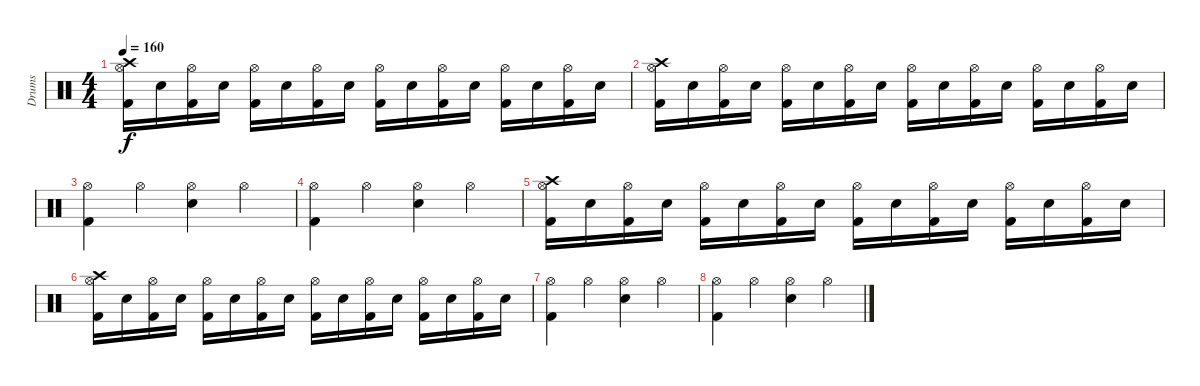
\track ("Drums" "Drums") {instrument percussion}
\staff {score}
\articulation defaults
\ts (4 4)
\tempo 160
\clef neutral
\ks c
("Kick (hit) 2" "Hi-Hat (open)" "Crash high (hit)").16{dy f} "Snare (hit) 2".16 ("Kick (hit) 2" "Hi-Hat (open)").16 "Snare (hit) 2".16 ("Kick (hit) 2" "Hi-Hat (open)").16 "Snare (hit) 2".16 ("Kick (hit) 2" "Hi-Hat (open)").16 "Snare (hit) 2".16 ("Kick (hit) 2" "Hi-Hat (open)").16 "Snare (hit) 2".16 ("Kick (hit) 2" "Hi-Hat (open)").16 "Snare (hit) 2".16 ("Kick (hit) 2" "Hi-Hat (open)").16 "Snare (hit) 2".16 ("Kick (hit) 2" "Hi-Hat (open)").16 "Snare (hit) 2".16 |
("Kick (hit) 2" "Hi-Hat (open)" "Crash high (hit)").16 "Snare (hit) 2".16 ("Kick (hit) 2" "Hi-Hat (open)").16 "Snare (hit) 2".16 ("Kick (hit) 2" "Hi-Hat (open)").16 "Snare (hit) 2".16 ("Kick (hit) 2" "Hi-Hat (open)").16 "Snare (hit) 2".16 ("Kick (hit) 2" "Hi-Hat (open)").16 "Snare (hit) 2".16 ("Kick (hit) 2" "Hi-Hat (open)").16 "Snare (hit) 2".16 ("Kick (hit) 2" "Hi-Hat (open)").16 "Snare (hit) 2".16 ("Kick (hit) 2" "Hi-Hat (open)").16 "Snare (hit) 2".16 |
("Kick (hit) 2" "Hi-Hat (open)").4 "Hi-Hat (open)".4 ("Snare (hit) 2" "Hi-Hat (open)").4 "Hi-Hat (open)".4 |
("Kick (hit) 2" "Hi-Hat (open)").4 "Hi-Hat (open)".4 ("Snare (hit) 2" "Hi-Hat (open)").4 "Hi-Hat (open)".4 |
("Kick (hit) 2" "Hi-Hat (open)" "Crash high (hit)").16 "Snare (hit) 2".16 ("Kick (hit) 2" "Hi-Hat (open)").16 "Snare (hit) 2".16 ("Kick (hit) 2" "Hi-Hat (open)").16 "Snare (hit) 2".16 ("Kick (hit) 2" "Hi-Hat (open)").16 "Snare (hit) 2".16 ("Kick (hit) 2" "Hi-Hat (open)").16 "Snare (hit) 2".16 ("Kick (hit) 2" "Hi-Hat (open)").16 "Snare (hit) 2".16 ("Kick (hit) 2" "Hi-Hat (open)").16 "Snare (hit) 2".16 ("Kick (hit) 2" "Hi-Hat (open)").16 "Snare (hit) 2".16 |
("Kick (hit) 2" "Hi-Hat (open)" "Crash high (hit)").16 "Snare (hit) 2".16 ("Kick (hit) 2" "Hi-Hat (open)").16 "Snare (hit) 2".16 ("Kick (hit) 2" "Hi-Hat (open)").16 "Snare (hit) 2".16 ("Kick (hit) 2" "Hi-Hat (open)").16 "Snare (hit) 2".16 ("Kick (hit) 2" "Hi-Hat (open)").16 "Snare (hit) 2".16 ("Kick (hit) 2" "Hi-Hat (open)").16 "Snare (hit) 2".16 ("Kick (hit) 2" "Hi-Hat (open)").16 "Snare (hit) 2".16 ("Kick (hit) 2" "Hi-Hat (open)").16 "Snare (hit) 2".16 |
("Kick (hit) 2" "Hi-Hat (open)").4 "Hi-Hat (open)".4 ("Snare (hit) 2" "Hi-Hat (open)").4 "Hi-Hat (open)".4 |
("Kick (hit) 2" "Hi-Hat (open)").4 "Hi-Hat (open)".4 ("Snare (hit) 2" "Hi-Hat (open)").4 "Hi-Hat (open)".4
